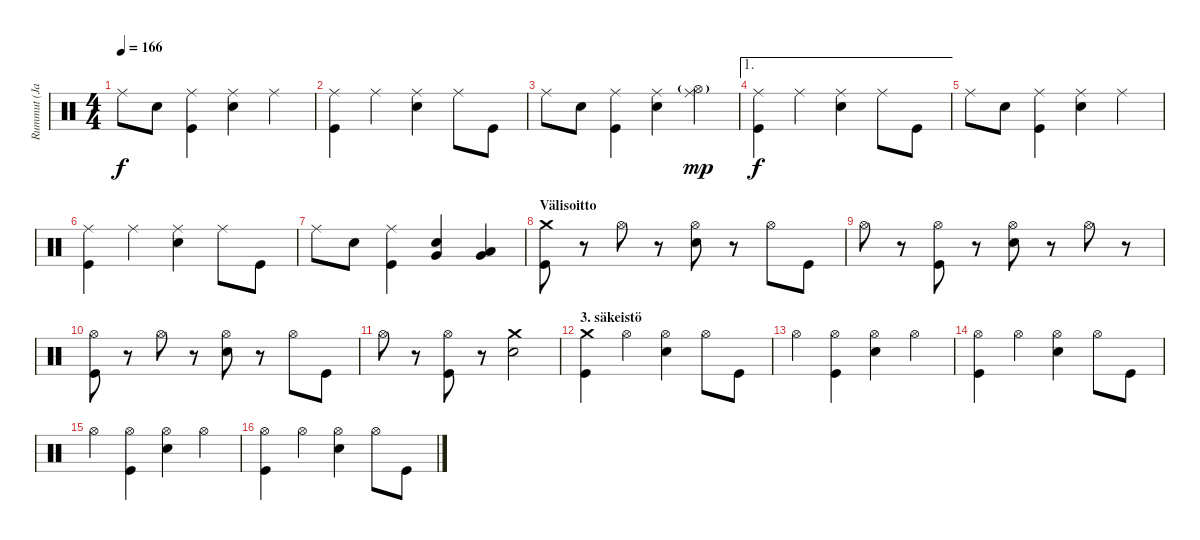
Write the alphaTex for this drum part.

\track ("Rummut (Janne)" "Rummut (Ja") {instrument percussion}
\staff {score}
\articulation defaults
\ts (4 4)
\tempo 166
\clef neutral
\ks c "Ride (middle)".8{dy f} "Snare (hit) 2".8
("Ride (middle)" "Kick (hit)").4 ("Ride (middle)" "Snare (hit) 2").4 "Ride (middle)".4 |
("Ride (middle)" "Kick (hit)").4 "Ride (middle)".4 ("Ride (middle)" "Snare (hit) 2").4 "Ride (middle)".8 "Kick (hit)".8 |
"Ride (middle)".8 "Snare (hit) 2".8 ("Ride (middle)" "Kick (hit)").4 ("Ride (middle)" "Snare (hit) 2").4 ("Ride (middle)" "Hi-Hat (open)"{g}).4{dy mp} |
\ae 1
("Ride (middle)" "Kick (hit)").4{dy f} "Ride (middle)".4 ("Ride (middle)" "Snare (hit) 2").4 "Ride (middle)".8 "Kick (hit)".8 |
"Ride (middle)".8 "Snare (hit) 2".8 ("Ride (middle)" "Kick (hit)").4 ("Ride (middle)" "Snare (hit) 2").4 "Ride (middle)".4 |
("Ride (middle)" "Kick (hit)").4 "Ride (middle)".4 ("Ride (middle)" "Snare (hit) 2").4 "Ride (middle)".8 "Kick (hit)".8 |
"Ride (middle)".8 "Snare (hit) 2".8 ("Ride (middle)" "Kick (hit)").4 ("Very Low Tom (hit)" "Snare (hit) 2").4 ("Very Low Tom (hit)" "Low Tom (hit)").4 |
\section ("" "Välisoitto")
("Crash medium (hit)" "Kick (hit)").8 r.8 "Hi-Hat (open)".8 r.8 ("Hi-Hat (open)" "Snare (hit) 2").8 r.8 "Hi-Hat (open)".8 "Kick (hit)".8 |
"Hi-Hat (open)".8 r.8 ("Hi-Hat (open)" "Kick (hit)").8 r.8 ("Hi-Hat (open)" "Snare (hit) 2").8 r.8 "Hi-Hat (open)".8 r.8 |
("Hi-Hat (open)" "Kick (hit)").8 r.8 "Hi-Hat (open)".8 r.8 ("Hi-Hat (open)" "Snare (hit) 2").8 r.8 "Hi-Hat (open)".8 "Kick (hit)".8 |
"Hi-Hat (open)".8 r.8 ("Hi-Hat (open)" "Kick (hit)").8 r.8 ("Crash medium (hit)" "Snare (hit) 2").2 |
\section ("" "3. säkeistö")
("Crash medium (hit)" "Kick (hit)").4 "Hi-Hat (open)".4 ("Hi-Hat (open)" "Snare (hit) 2").4 "Hi-Hat (open)".8 "Kick (hit)".8 |
"Hi-Hat (open)".4 ("Hi-Hat (open)" "Kick (hit)").4 ("Hi-Hat (open)" "Snare (hit) 2").4 "Hi-Hat (open)".4 |
("Hi-Hat (open)" "Kick (hit)").4 "Hi-Hat (open)".4 ("Hi-Hat (open)" "Snare (hit) 2").4 "Hi-Hat (open)".8 "Kick (hit)".8 |
"Hi-Hat (open)".4 ("Hi-Hat (open)" "Kick (hit)").4 ("Hi-Hat (open)" "Snare (hit) 2").4 "Hi-Hat (open)".4 |
("Hi-Hat (open)" "Kick (hit)").4 "Hi-Hat (open)".4 ("Hi-Hat (open)" "Snare (hit) 2").4 "Hi-Hat (open)".8 "Kick (hit)".8
